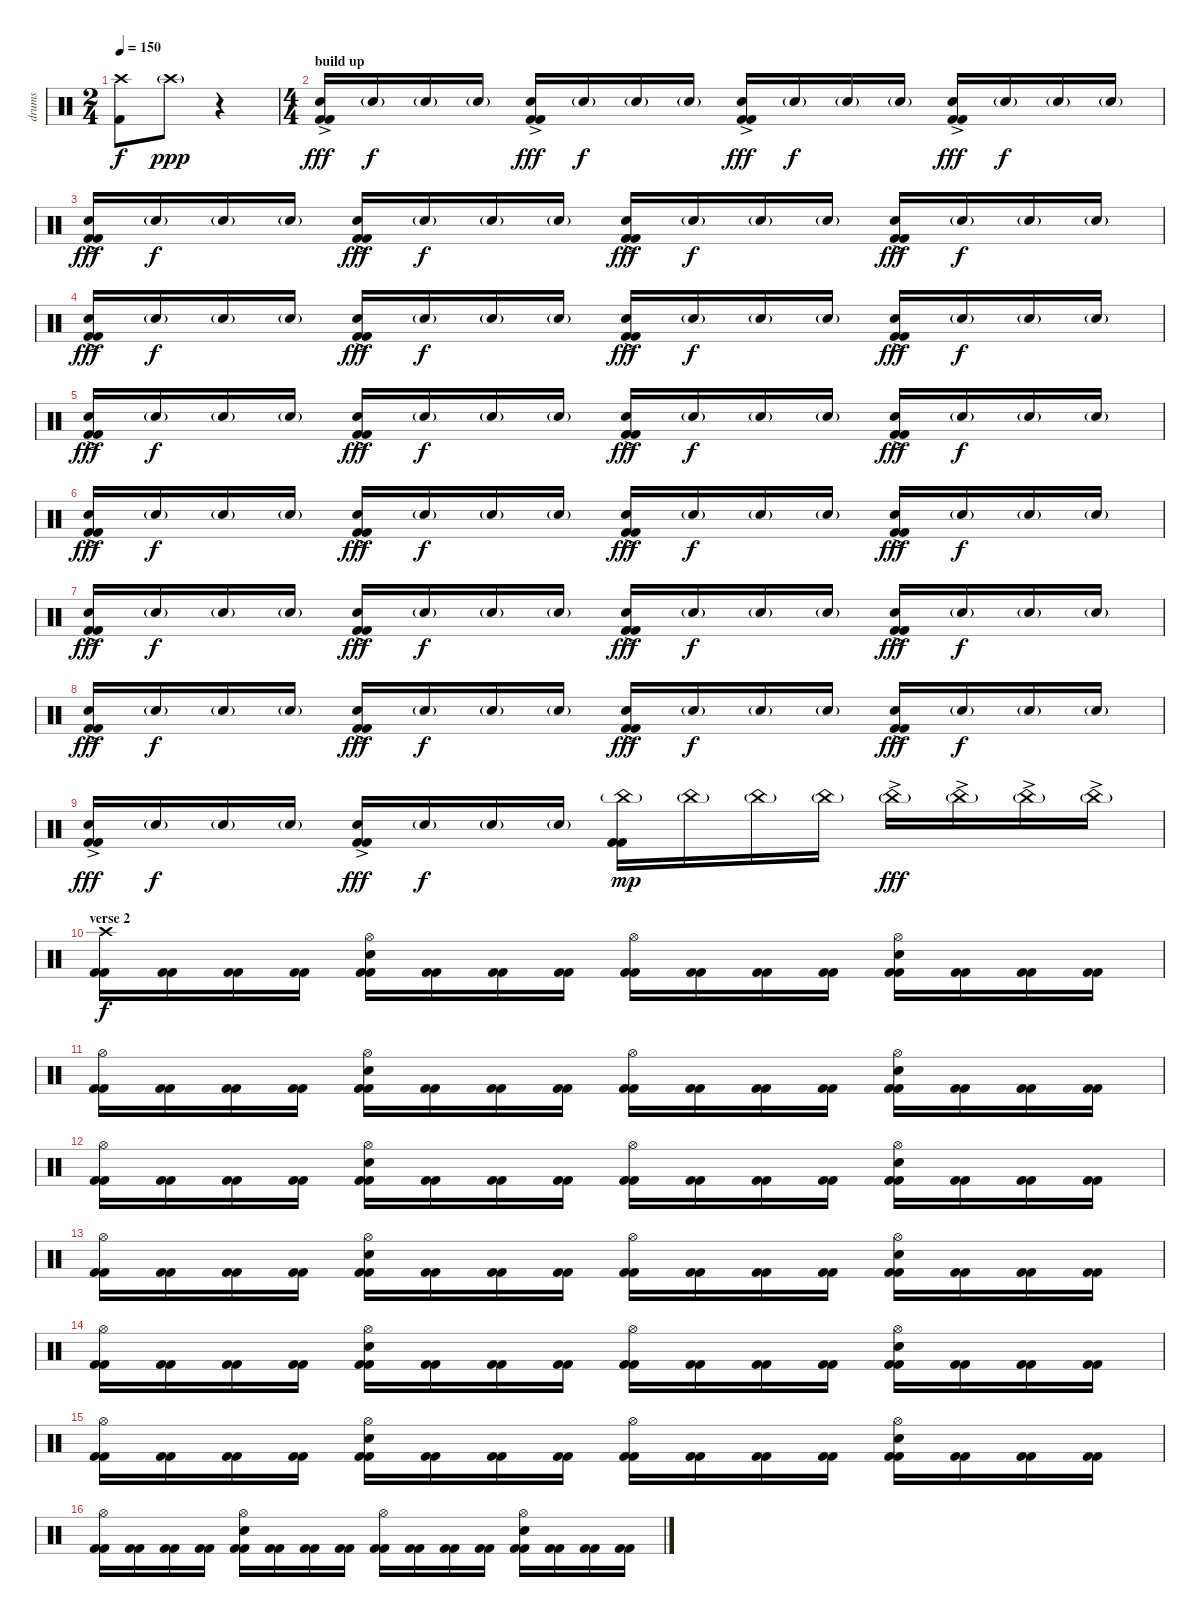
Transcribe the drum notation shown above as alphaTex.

\track ("drums" "drums") {instrument percussion}
\staff {score}
\articulation defaults
\ts (2 4)
\tempo 150
\clef neutral
\ks c
("Crash high (hit)" "Kick (hit) 2").8{dy f} "Crash high (hit)"{g}.8{dy ppp} r.4 |
\ts (4 4)
\section ("" "build up")
("Electric Snare (hit)"{ac} "Kick (hit) 2" "Kick (hit) 2").16{dy fff} "Electric Snare (hit)"{g}.16{dy f} "Electric Snare (hit)"{g}.16 "Electric Snare (hit)"{g}.16 ("Electric Snare (hit)"{ac} "Kick (hit) 2" "Kick (hit) 2").16{dy fff} "Electric Snare (hit)"{g}.16{dy f} "Electric Snare (hit)"{g}.16 "Electric Snare (hit)"{g}.16 ("Electric Snare (hit)"{ac} "Kick (hit) 2" "Kick (hit) 2").16{dy fff} "Electric Snare (hit)"{g}.16{dy f} "Electric Snare (hit)"{g}.16 "Electric Snare (hit)"{g}.16 ("Electric Snare (hit)"{ac} "Kick (hit) 2" "Kick (hit) 2").16{dy fff} "Electric Snare (hit)"{g}.16{dy f} "Electric Snare (hit)"{g}.16 "Electric Snare (hit)"{g}.16 |
("Electric Snare (hit)"{ac} "Kick (hit) 2" "Kick (hit) 2").16{dy fff} "Electric Snare (hit)"{g}.16{dy f} "Electric Snare (hit)"{g}.16 "Electric Snare (hit)"{g}.16 ("Electric Snare (hit)"{ac} "Kick (hit) 2" "Kick (hit) 2").16{dy fff} "Electric Snare (hit)"{g}.16{dy f} "Electric Snare (hit)"{g}.16 "Electric Snare (hit)"{g}.16 ("Electric Snare (hit)"{ac} "Kick (hit) 2" "Kick (hit) 2").16{dy fff} "Electric Snare (hit)"{g}.16{dy f} "Electric Snare (hit)"{g}.16 "Electric Snare (hit)"{g}.16 ("Electric Snare (hit)"{ac} "Kick (hit) 2" "Kick (hit) 2").16{dy fff} "Electric Snare (hit)"{g}.16{dy f} "Electric Snare (hit)"{g}.16 "Electric Snare (hit)"{g}.16 |
("Electric Snare (hit)"{ac} "Kick (hit) 2" "Kick (hit) 2").16{dy fff} "Electric Snare (hit)"{g}.16{dy f} "Electric Snare (hit)"{g}.16 "Electric Snare (hit)"{g}.16 ("Electric Snare (hit)"{ac} "Kick (hit) 2" "Kick (hit) 2").16{dy fff} "Electric Snare (hit)"{g}.16{dy f} "Electric Snare (hit)"{g}.16 "Electric Snare (hit)"{g}.16 ("Electric Snare (hit)"{ac} "Kick (hit) 2" "Kick (hit) 2").16{dy fff} "Electric Snare (hit)"{g}.16{dy f} "Electric Snare (hit)"{g}.16 "Electric Snare (hit)"{g}.16 ("Electric Snare (hit)"{ac} "Kick (hit) 2" "Kick (hit) 2").16{dy fff} "Electric Snare (hit)"{g}.16{dy f} "Electric Snare (hit)"{g}.16 "Electric Snare (hit)"{g}.16 |
("Electric Snare (hit)"{ac} "Kick (hit) 2" "Kick (hit) 2").16{dy fff} "Electric Snare (hit)"{g}.16{dy f} "Electric Snare (hit)"{g}.16 "Electric Snare (hit)"{g}.16 ("Electric Snare (hit)"{ac} "Kick (hit) 2" "Kick (hit) 2").16{dy fff} "Electric Snare (hit)"{g}.16{dy f} "Electric Snare (hit)"{g}.16 "Electric Snare (hit)"{g}.16 ("Electric Snare (hit)"{ac} "Kick (hit) 2" "Kick (hit) 2").16{dy fff} "Electric Snare (hit)"{g}.16{dy f} "Electric Snare (hit)"{g}.16 "Electric Snare (hit)"{g}.16 ("Electric Snare (hit)"{ac} "Kick (hit) 2" "Kick (hit) 2").16{dy fff} "Electric Snare (hit)"{g}.16{dy f} "Electric Snare (hit)"{g}.16 "Electric Snare (hit)"{g}.16 |
("Electric Snare (hit)"{ac} "Kick (hit) 2" "Kick (hit) 2").16{dy fff} "Electric Snare (hit)"{g}.16{dy f} "Electric Snare (hit)"{g}.16 "Electric Snare (hit)"{g}.16 ("Electric Snare (hit)"{ac} "Kick (hit) 2" "Kick (hit) 2").16{dy fff} "Electric Snare (hit)"{g}.16{dy f} "Electric Snare (hit)"{g}.16 "Electric Snare (hit)"{g}.16 ("Electric Snare (hit)"{ac} "Kick (hit) 2" "Kick (hit) 2").16{dy fff} "Electric Snare (hit)"{g}.16{dy f} "Electric Snare (hit)"{g}.16 "Electric Snare (hit)"{g}.16 ("Electric Snare (hit)"{ac} "Kick (hit) 2" "Kick (hit) 2").16{dy fff} "Electric Snare (hit)"{g}.16{dy f} "Electric Snare (hit)"{g}.16 "Electric Snare (hit)"{g}.16 |
("Electric Snare (hit)"{ac} "Kick (hit) 2" "Kick (hit) 2").16{dy fff} "Electric Snare (hit)"{g}.16{dy f} "Electric Snare (hit)"{g}.16 "Electric Snare (hit)"{g}.16 ("Electric Snare (hit)"{ac} "Kick (hit) 2" "Kick (hit) 2").16{dy fff} "Electric Snare (hit)"{g}.16{dy f} "Electric Snare (hit)"{g}.16 "Electric Snare (hit)"{g}.16 ("Electric Snare (hit)"{ac} "Kick (hit) 2" "Kick (hit) 2").16{dy fff} "Electric Snare (hit)"{g}.16{dy f} "Electric Snare (hit)"{g}.16 "Electric Snare (hit)"{g}.16 ("Electric Snare (hit)"{ac} "Kick (hit) 2" "Kick (hit) 2").16{dy fff} "Electric Snare (hit)"{g}.16{dy f} "Electric Snare (hit)"{g}.16 "Electric Snare (hit)"{g}.16 |
("Electric Snare (hit)"{ac} "Kick (hit) 2" "Kick (hit) 2").16{dy fff} "Electric Snare (hit)"{g}.16{dy f} "Electric Snare (hit)"{g}.16 "Electric Snare (hit)"{g}.16 ("Electric Snare (hit)"{ac} "Kick (hit) 2" "Kick (hit) 2").16{dy fff} "Electric Snare (hit)"{g}.16{dy f} "Electric Snare (hit)"{g}.16 "Electric Snare (hit)"{g}.16 ("Electric Snare (hit)"{ac} "Kick (hit) 2" "Kick (hit) 2").16{dy fff} "Electric Snare (hit)"{g}.16{dy f} "Electric Snare (hit)"{g}.16 "Electric Snare (hit)"{g}.16 ("Electric Snare (hit)"{ac} "Kick (hit) 2" "Kick (hit) 2").16{dy fff} "Electric Snare (hit)"{g}.16{dy f} "Electric Snare (hit)"{g}.16 "Electric Snare (hit)"{g}.16 |
("Electric Snare (hit)"{ac} "Kick (hit) 2" "Kick (hit) 2").16{dy fff} "Electric Snare (hit)"{g}.16{dy f} "Electric Snare (hit)"{g}.16 "Electric Snare (hit)"{g}.16 ("Electric Snare (hit)"{ac} "Kick (hit) 2" "Kick (hit) 2").16{dy fff} "Electric Snare (hit)"{g}.16{dy f} "Electric Snare (hit)"{g}.16 "Electric Snare (hit)"{g}.16 ("China (hit)"{g} "Kick (hit) 2" "Kick (hit) 2").16{dy mp} "China (hit)"{g}.16 "China (hit)"{g}.16 "China (hit)"{g}.16 "China (hit)"{g ac}.16{dy fff} "China (hit)"{g ac}.16 "China (hit)"{g ac}.16 "China (hit)"{g ac}.16 |
\section ("" "verse 2")
("Crash high (hit)" "Kick (hit) 2" "Kick (hit) 2").16{dy f} ("Kick (hit) 2" "Kick (hit) 2").16 ("Kick (hit) 2" "Kick (hit) 2").16 ("Kick (hit) 2" "Kick (hit) 2").16 ("Hi-Hat (open)" "Electric Snare (hit)" "Kick (hit) 2" "Kick (hit) 2").16 ("Kick (hit) 2" "Kick (hit) 2").16 ("Kick (hit) 2" "Kick (hit) 2").16 ("Kick (hit) 2" "Kick (hit) 2").16 ("Hi-Hat (open)" "Kick (hit) 2" "Kick (hit) 2").16 ("Kick (hit) 2" "Kick (hit) 2").16 ("Kick (hit) 2" "Kick (hit) 2").16 ("Kick (hit) 2" "Kick (hit) 2").16 ("Hi-Hat (open)" "Electric Snare (hit)" "Kick (hit) 2" "Kick (hit) 2").16 ("Kick (hit) 2" "Kick (hit) 2").16 ("Kick (hit) 2" "Kick (hit) 2").16 ("Kick (hit) 2" "Kick (hit) 2").16 |
("Hi-Hat (open)" "Kick (hit) 2" "Kick (hit) 2").16 ("Kick (hit) 2" "Kick (hit) 2").16 ("Kick (hit) 2" "Kick (hit) 2").16 ("Kick (hit) 2" "Kick (hit) 2").16 ("Hi-Hat (open)" "Electric Snare (hit)" "Kick (hit) 2" "Kick (hit) 2").16 ("Kick (hit) 2" "Kick (hit) 2").16 ("Kick (hit) 2" "Kick (hit) 2").16 ("Kick (hit) 2" "Kick (hit) 2").16 ("Hi-Hat (open)" "Kick (hit) 2" "Kick (hit) 2").16 ("Kick (hit) 2" "Kick (hit) 2").16 ("Kick (hit) 2" "Kick (hit) 2").16 ("Kick (hit) 2" "Kick (hit) 2").16 ("Hi-Hat (open)" "Electric Snare (hit)" "Kick (hit) 2" "Kick (hit) 2").16 ("Kick (hit) 2" "Kick (hit) 2").16 ("Kick (hit) 2" "Kick (hit) 2").16 ("Kick (hit) 2" "Kick (hit) 2").16 |
("Hi-Hat (open)" "Kick (hit) 2" "Kick (hit) 2").16 ("Kick (hit) 2" "Kick (hit) 2").16 ("Kick (hit) 2" "Kick (hit) 2").16 ("Kick (hit) 2" "Kick (hit) 2").16 ("Hi-Hat (open)" "Electric Snare (hit)" "Kick (hit) 2" "Kick (hit) 2").16 ("Kick (hit) 2" "Kick (hit) 2").16 ("Kick (hit) 2" "Kick (hit) 2").16 ("Kick (hit) 2" "Kick (hit) 2").16 ("Hi-Hat (open)" "Kick (hit) 2" "Kick (hit) 2").16 ("Kick (hit) 2" "Kick (hit) 2").16 ("Kick (hit) 2" "Kick (hit) 2").16 ("Kick (hit) 2" "Kick (hit) 2").16 ("Hi-Hat (open)" "Electric Snare (hit)" "Kick (hit) 2" "Kick (hit) 2").16 ("Kick (hit) 2" "Kick (hit) 2").16 ("Kick (hit) 2" "Kick (hit) 2").16 ("Kick (hit) 2" "Kick (hit) 2").16 |
("Hi-Hat (open)" "Kick (hit) 2" "Kick (hit) 2").16 ("Kick (hit) 2" "Kick (hit) 2").16 ("Kick (hit) 2" "Kick (hit) 2").16 ("Kick (hit) 2" "Kick (hit) 2").16 ("Hi-Hat (open)" "Electric Snare (hit)" "Kick (hit) 2" "Kick (hit) 2").16 ("Kick (hit) 2" "Kick (hit) 2").16 ("Kick (hit) 2" "Kick (hit) 2").16 ("Kick (hit) 2" "Kick (hit) 2").16 ("Hi-Hat (open)" "Kick (hit) 2" "Kick (hit) 2").16 ("Kick (hit) 2" "Kick (hit) 2").16 ("Kick (hit) 2" "Kick (hit) 2").16 ("Kick (hit) 2" "Kick (hit) 2").16 ("Hi-Hat (open)" "Electric Snare (hit)" "Kick (hit) 2" "Kick (hit) 2").16 ("Kick (hit) 2" "Kick (hit) 2").16 ("Kick (hit) 2" "Kick (hit) 2").16 ("Kick (hit) 2" "Kick (hit) 2").16 |
("Hi-Hat (open)" "Kick (hit) 2" "Kick (hit) 2").16 ("Kick (hit) 2" "Kick (hit) 2").16 ("Kick (hit) 2" "Kick (hit) 2").16 ("Kick (hit) 2" "Kick (hit) 2").16 ("Hi-Hat (open)" "Electric Snare (hit)" "Kick (hit) 2" "Kick (hit) 2").16 ("Kick (hit) 2" "Kick (hit) 2").16 ("Kick (hit) 2" "Kick (hit) 2").16 ("Kick (hit) 2" "Kick (hit) 2").16 ("Hi-Hat (open)" "Kick (hit) 2" "Kick (hit) 2").16 ("Kick (hit) 2" "Kick (hit) 2").16 ("Kick (hit) 2" "Kick (hit) 2").16 ("Kick (hit) 2" "Kick (hit) 2").16 ("Hi-Hat (open)" "Electric Snare (hit)" "Kick (hit) 2" "Kick (hit) 2").16 ("Kick (hit) 2" "Kick (hit) 2").16 ("Kick (hit) 2" "Kick (hit) 2").16 ("Kick (hit) 2" "Kick (hit) 2").16 |
("Hi-Hat (open)" "Kick (hit) 2" "Kick (hit) 2").16 ("Kick (hit) 2" "Kick (hit) 2").16 ("Kick (hit) 2" "Kick (hit) 2").16 ("Kick (hit) 2" "Kick (hit) 2").16 ("Hi-Hat (open)" "Electric Snare (hit)" "Kick (hit) 2" "Kick (hit) 2").16 ("Kick (hit) 2" "Kick (hit) 2").16 ("Kick (hit) 2" "Kick (hit) 2").16 ("Kick (hit) 2" "Kick (hit) 2").16 ("Hi-Hat (open)" "Kick (hit) 2" "Kick (hit) 2").16 ("Kick (hit) 2" "Kick (hit) 2").16 ("Kick (hit) 2" "Kick (hit) 2").16 ("Kick (hit) 2" "Kick (hit) 2").16 ("Hi-Hat (open)" "Electric Snare (hit)" "Kick (hit) 2" "Kick (hit) 2").16 ("Kick (hit) 2" "Kick (hit) 2").16 ("Kick (hit) 2" "Kick (hit) 2").16 ("Kick (hit) 2" "Kick (hit) 2").16 |
("Hi-Hat (open)" "Kick (hit) 2" "Kick (hit) 2").16 ("Kick (hit) 2" "Kick (hit) 2").16 ("Kick (hit) 2" "Kick (hit) 2").16 ("Kick (hit) 2" "Kick (hit) 2").16 ("Hi-Hat (open)" "Electric Snare (hit)" "Kick (hit) 2" "Kick (hit) 2").16 ("Kick (hit) 2" "Kick (hit) 2").16 ("Kick (hit) 2" "Kick (hit) 2").16 ("Kick (hit) 2" "Kick (hit) 2").16 ("Hi-Hat (open)" "Kick (hit) 2" "Kick (hit) 2").16 ("Kick (hit) 2" "Kick (hit) 2").16 ("Kick (hit) 2" "Kick (hit) 2").16 ("Kick (hit) 2" "Kick (hit) 2").16 ("Hi-Hat (open)" "Electric Snare (hit)" "Kick (hit) 2" "Kick (hit) 2").16 ("Kick (hit) 2" "Kick (hit) 2").16 ("Kick (hit) 2" "Kick (hit) 2").16 ("Kick (hit) 2" "Kick (hit) 2").16
